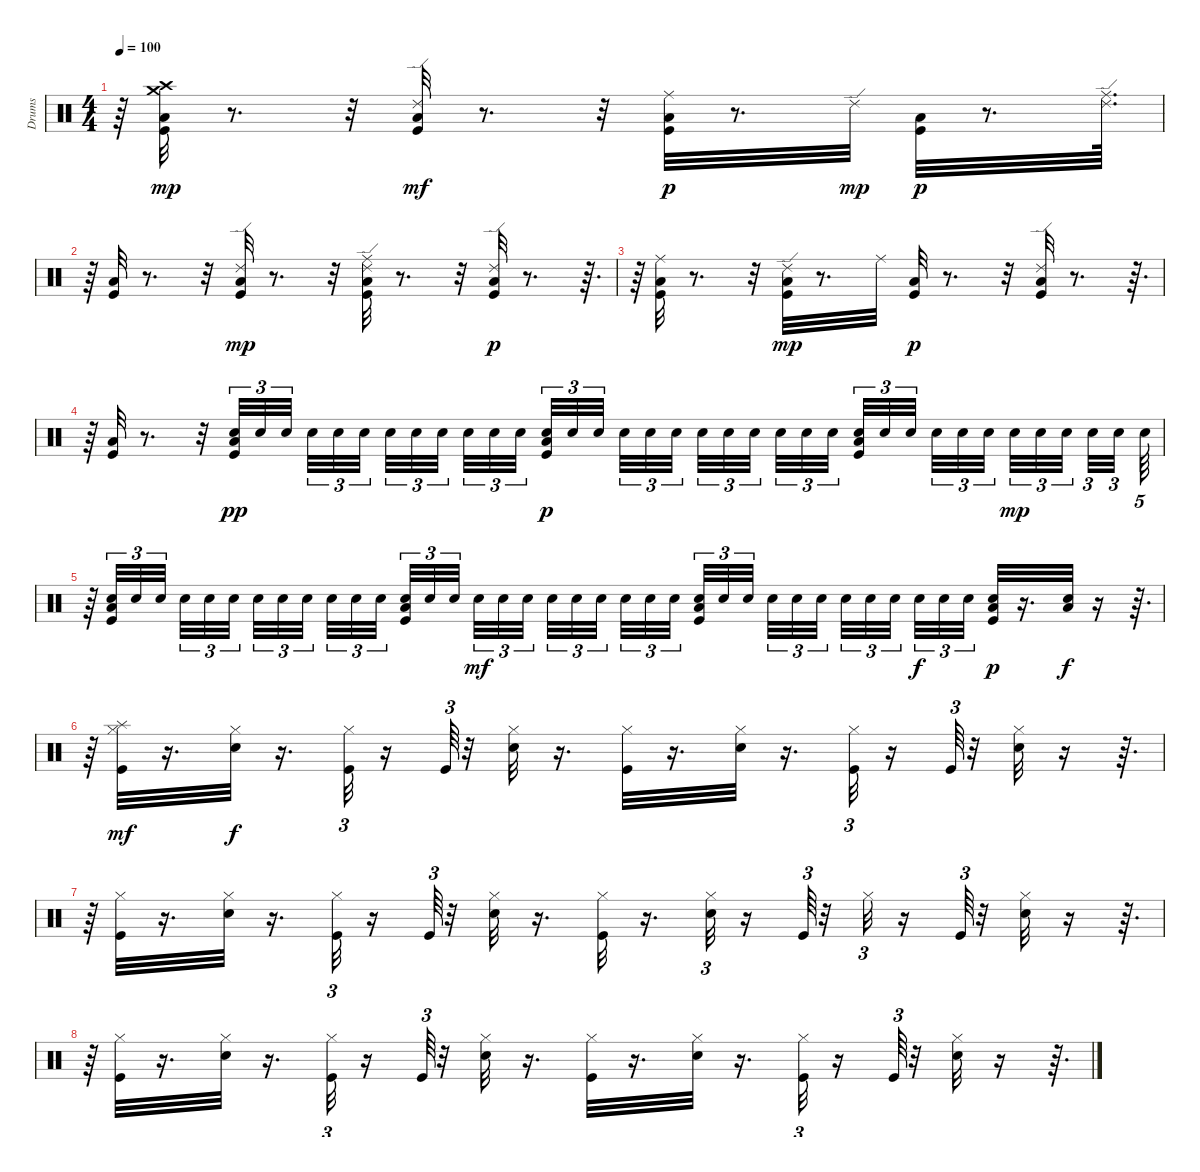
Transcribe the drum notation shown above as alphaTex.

\track ("Drums" "Drums") {instrument percussion}
\staff {score}
\articulation defaults
\ts (4 4)
\tempo 100
\clef neutral
\ks c
r.64{dy mp} ("Kick (hit)" "Low Floor Tom (hit)" "Crash high (hit)" "Crash medium (hit)").32 r.8{d} r.32 ("Low Floor Tom (hit)" "Kick (hit)" "Ride (edge) 2").32{dy mf} r.8{d} r.32 ("Ride (middle)" "Kick (hit)" "Low Floor Tom (hit)").32{dy p} r.8{d} "Ride (edge) 2".32{dy mp} ("Kick (hit)" "Low Floor Tom (hit)").32{dy p} r.8{d} ("Ride (edge) 2" "Ride (middle)").64{d} |
r.64 ("Kick (hit)" "Low Floor Tom (hit)").32 r.8{d} r.32 ("Low Floor Tom (hit)" "Kick (hit)" "Ride (edge) 2").32{dy mp} r.8{d} r.32 ("Ride (middle)" "Kick (hit)" "Low Floor Tom (hit)" "Ride (edge) 2").32 r.8{d} r.32 ("Ride (edge) 2" "Kick (hit)" "Low Floor Tom (hit)").32{dy p} r.8{d} r.64{d} |
r.64 ("Ride (middle)" "Kick (hit)" "Low Floor Tom (hit)").32 r.8{d} r.32 ("Low Floor Tom (hit)" "Kick (hit)" "Ride (edge) 2").32{dy mp} r.8{d} "Ride (middle)".32 ("Kick (hit)" "Low Floor Tom (hit)").32{dy p} r.8{d} r.32 ("Ride (edge) 2" "Kick (hit)" "Low Floor Tom (hit)").32 r.8{d} r.64{d} |
r.64 ("Kick (hit)" "Low Floor Tom (hit)").32 r.8{d} r.32 ("Low Floor Tom (hit)" "Kick (hit)" "Snare (hit) 2").32{tu (3 2) dy pp} "Snare (hit) 2".32{tu (3 2)} "Snare (hit) 2".32{tu (3 2)} "Snare (hit) 2".32{tu (3 2)} "Snare (hit) 2".32{tu (3 2)} "Snare (hit) 2".32{tu (3 2)} "Snare (hit) 2".32{tu (3 2)} "Snare (hit) 2".32{tu (3 2)} "Snare (hit) 2".32{tu (3 2)} "Snare (hit) 2".32{tu (3 2)} "Snare (hit) 2".32{tu (3 2)} "Snare (hit) 2".32{tu (3 2)} ("Kick (hit)" "Low Floor Tom (hit)" "Snare (hit) 2").32{tu (3 2) dy p} "Snare (hit) 2".32{tu (3 2)} "Snare (hit) 2".32{tu (3 2)} "Snare (hit) 2".32{tu (3 2)} "Snare (hit) 2".32{tu (3 2)} "Snare (hit) 2".32{tu (3 2)} "Snare (hit) 2".32{tu (3 2)} "Snare (hit) 2".32{tu (3 2)} "Snare (hit) 2".32{tu (3 2)} "Snare (hit) 2".32{tu (3 2)} "Snare (hit) 2".32{tu (3 2)} "Snare (hit) 2".32{tu (3 2)} ("Kick (hit)" "Low Floor Tom (hit)" "Snare (hit) 2").32{tu (3 2)} "Snare (hit) 2".32{tu (3 2)} "Snare (hit) 2".32{tu (3 2)} "Snare (hit) 2".32{tu (3 2)} "Snare (hit) 2".32{tu (3 2)} "Snare (hit) 2".32{tu (3 2)} "Snare (hit) 2".32{tu (3 2) dy mp} "Snare (hit) 2".32{tu (3 2)} "Snare (hit) 2".32{tu (3 2)} "Snare (hit) 2".32{tu (3 2)} "Snare (hit) 2".32{tu (3 2)} "Snare (hit) 2".64{tu (5 4)} |
r.64 ("Kick (hit)" "Low Floor Tom (hit)" "Snare (hit) 2").32{tu (3 2)} "Snare (hit) 2".32{tu (3 2)} "Snare (hit) 2".32{tu (3 2)} "Snare (hit) 2".32{tu (3 2)} "Snare (hit) 2".32{tu (3 2)} "Snare (hit) 2".32{tu (3 2)} "Snare (hit) 2".32{tu (3 2)} "Snare (hit) 2".32{tu (3 2)} "Snare (hit) 2".32{tu (3 2)} "Snare (hit) 2".32{tu (3 2)} "Snare (hit) 2".32{tu (3 2)} "Snare (hit) 2".32{tu (3 2)} ("Low Floor Tom (hit)" "Kick (hit)" "Snare (hit) 2").32{tu (3 2)} "Snare (hit) 2".32{tu (3 2)} "Snare (hit) 2".32{tu (3 2)} "Snare (hit) 2".32{tu (3 2) dy mf} "Snare (hit) 2".32{tu (3 2)} "Snare (hit) 2".32{tu (3 2)} "Snare (hit) 2".32{tu (3 2)} "Snare (hit) 2".32{tu (3 2)} "Snare (hit) 2".32{tu (3 2)} "Snare (hit) 2".32{tu (3 2)} "Snare (hit) 2".32{tu (3 2)} "Snare (hit) 2".32{tu (3 2)} ("Kick (hit)" "Low Floor Tom (hit)" "Snare (hit) 2").32{tu (3 2)} "Snare (hit) 2".32{tu (3 2)} "Snare (hit) 2".32{tu (3 2)} "Snare (hit) 2".32{tu (3 2)} "Snare (hit) 2".32{tu (3 2)} "Snare (hit) 2".32{tu (3 2)} "Snare (hit) 2".32{tu (3 2)} "Snare (hit) 2".32{tu (3 2)} "Snare (hit) 2".32{tu (3 2)} "Snare (hit) 2".32{tu (3 2) dy f} "Snare (hit) 2".32{tu (3 2)} "Snare (hit) 2".32{tu (3 2)} ("Kick (hit)" "Low Floor Tom (hit)" "Snare (hit) 2").32{dy p} r.16{d} ("Low Floor Tom (hit)" "Snare (hit) 2").32{dy f} r.16 r.64{d} |
r.64 ("Kick (hit)" "Splash (hit)" "Hi-Hat (closed)").32{dy mf} r.16{d} ("Snare (hit) 2" "Hi-Hat (closed)").32{dy f} r.16{d} ("Kick (hit)" "Hi-Hat (closed)").32{tu (3 2)} r.16 "Kick (hit)".64{tu (3 2)} r.32 ("Snare (hit) 2" "Hi-Hat (closed)").32 r.16{d} ("Kick (hit)" "Hi-Hat (closed)").32 r.16{d} ("Snare (hit) 2" "Hi-Hat (closed)").32 r.16{d} ("Kick (hit)" "Hi-Hat (closed)").32{tu (3 2)} r.16 "Kick (hit)".64{tu (3 2)} r.32 ("Snare (hit) 2" "Hi-Hat (closed)").32 r.16 r.64{d} |
r.64 ("Kick (hit)" "Hi-Hat (closed)").32 r.16{d} ("Snare (hit) 2" "Hi-Hat (closed)").32 r.16{d} ("Kick (hit)" "Hi-Hat (closed)").32{tu (3 2)} r.16 "Kick (hit)".64{tu (3 2)} r.32 ("Snare (hit) 2" "Hi-Hat (closed)").32 r.16{d} ("Kick (hit)" "Hi-Hat (closed)").32 r.16{d} ("Snare (hit) 2" "Hi-Hat (closed)").32{tu (3 2)} r.16 "Kick (hit)".64{tu (3 2)} r.32 "Hi-Hat (closed)".32{tu (3 2)} r.16 "Kick (hit)".64{tu (3 2)} r.32 ("Snare (hit) 2" "Hi-Hat (closed)").32 r.16 r.64{d} |
r.64 ("Kick (hit)" "Hi-Hat (closed)").32 r.16{d} ("Snare (hit) 2" "Hi-Hat (closed)").32 r.16{d} ("Kick (hit)" "Hi-Hat (closed)").32{tu (3 2)} r.16 "Kick (hit)".64{tu (3 2)} r.32 ("Snare (hit) 2" "Hi-Hat (closed)").32 r.16{d} ("Kick (hit)" "Hi-Hat (closed)").32 r.16{d} ("Snare (hit) 2" "Hi-Hat (closed)").32 r.16{d} ("Kick (hit)" "Hi-Hat (closed)").32{tu (3 2)} r.16 "Kick (hit)".64{tu (3 2)} r.32 ("Snare (hit) 2" "Hi-Hat (closed)").32 r.16 r.64{d}
